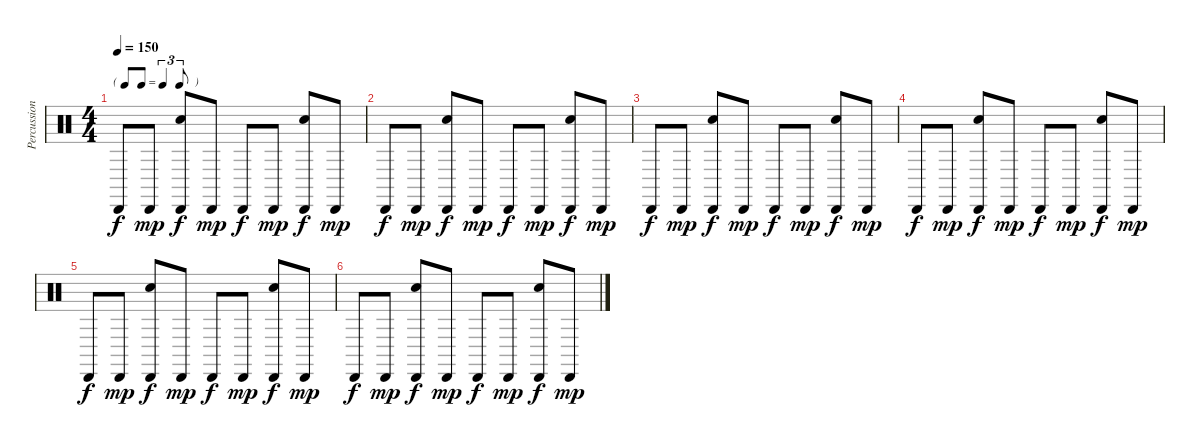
\track ("Percussion" "Percussion") {instrument percussion}
\staff {score}
\articulation defaults
\ts (4 4)
\tf triplet8th
\tempo 150
\clef neutral
\ks c "Cabasa (hit)".8{dy f} "Cabasa (hit)".8{dy mp}
("Cabasa (hit)" "Hand Clap (hit)").8{dy f} "Cabasa (hit)".8{dy mp} "Cabasa (hit)".8{dy f} "Cabasa (hit)".8{dy mp} ("Cabasa (hit)" "Hand Clap (hit)").8{dy f} "Cabasa (hit)".8{dy mp} |
"Cabasa (hit)".8{dy f} "Cabasa (hit)".8{dy mp} ("Cabasa (hit)" "Hand Clap (hit)").8{dy f} "Cabasa (hit)".8{dy mp} "Cabasa (hit)".8{dy f} "Cabasa (hit)".8{dy mp} ("Cabasa (hit)" "Hand Clap (hit)").8{dy f} "Cabasa (hit)".8{dy mp} |
"Cabasa (hit)".8{dy f} "Cabasa (hit)".8{dy mp} ("Cabasa (hit)" "Hand Clap (hit)").8{dy f} "Cabasa (hit)".8{dy mp} "Cabasa (hit)".8{dy f} "Cabasa (hit)".8{dy mp} ("Cabasa (hit)" "Hand Clap (hit)").8{dy f} "Cabasa (hit)".8{dy mp} |
"Cabasa (hit)".8{dy f} "Cabasa (hit)".8{dy mp} ("Cabasa (hit)" "Hand Clap (hit)").8{dy f} "Cabasa (hit)".8{dy mp} "Cabasa (hit)".8{dy f} "Cabasa (hit)".8{dy mp} ("Cabasa (hit)" "Hand Clap (hit)").8{dy f} "Cabasa (hit)".8{dy mp} |
"Cabasa (hit)".8{dy f volume 4} "Cabasa (hit)".8{dy mp} ("Cabasa (hit)" "Hand Clap (hit)").8{dy f} "Cabasa (hit)".8{dy mp} "Cabasa (hit)".8{dy f} "Cabasa (hit)".8{dy mp} ("Cabasa (hit)" "Hand Clap (hit)").8{dy f} "Cabasa (hit)".8{dy mp} |
"Cabasa (hit)".8{dy f} "Cabasa (hit)".8{dy mp} ("Cabasa (hit)" "Hand Clap (hit)").8{dy f} "Cabasa (hit)".8{dy mp} "Cabasa (hit)".8{dy f} "Cabasa (hit)".8{dy mp} ("Cabasa (hit)" "Hand Clap (hit)").8{dy f} "Cabasa (hit)".8{dy mp volume 0}
